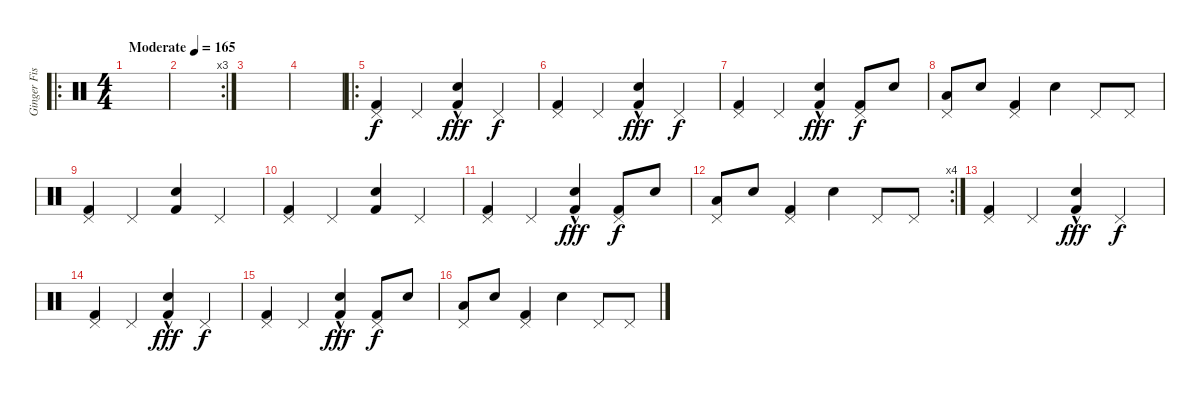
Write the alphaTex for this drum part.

\track ("Ginger Fish" "Ginger Fis") {instrument percussion}
\staff {score}
\articulation defaults
\ro
\ts (4 4)
\tempo (165 "Moderate")
\clef neutral
\ks c
|
\rc 3
|
|
|
\ro
("Pedal Hi-Hat (hit)" "Kick (hit) 2").4 "Pedal Hi-Hat (hit)".4 ("Electric Snare (hit)"{hac} "Kick (hit) 2").4{dy fff} "Pedal Hi-Hat (hit)".4{dy f} |
("Pedal Hi-Hat (hit)" "Kick (hit) 2").4 "Pedal Hi-Hat (hit)".4 ("Electric Snare (hit)"{hac} "Kick (hit) 2").4{dy fff} "Pedal Hi-Hat (hit)".4{dy f} |
("Pedal Hi-Hat (hit)" "Kick (hit) 2").4 "Pedal Hi-Hat (hit)".4 ("Electric Snare (hit)"{hac} "Kick (hit) 2").4{dy fff} ("Pedal Hi-Hat (hit)" "Kick (hit) 2").8{dy f} "Electric Snare (hit)".8 |
("Pedal Hi-Hat (hit)" "Low Tom (hit)").8 "Electric Snare (hit)".8 ("Pedal Hi-Hat (hit)" "Kick (hit) 2").4 "Electric Snare (hit)".4 "Pedal Hi-Hat (hit)".8 "Pedal Hi-Hat (hit)".8 |
("Pedal Hi-Hat (hit)" "Kick (hit) 2").4 "Pedal Hi-Hat (hit)".4 ("Electric Snare (hit)" "Kick (hit) 2").4 "Pedal Hi-Hat (hit)".4 |
("Pedal Hi-Hat (hit)" "Kick (hit) 2").4 "Pedal Hi-Hat (hit)".4 ("Electric Snare (hit)" "Kick (hit) 2").4 "Pedal Hi-Hat (hit)".4 |
("Pedal Hi-Hat (hit)" "Kick (hit) 2").4 "Pedal Hi-Hat (hit)".4 ("Electric Snare (hit)"{hac} "Kick (hit) 2").4{dy fff} ("Pedal Hi-Hat (hit)" "Kick (hit) 2").8{dy f} "Electric Snare (hit)".8 |
\rc 4
("Pedal Hi-Hat (hit)" "Low Tom (hit)").8 "Electric Snare (hit)".8 ("Pedal Hi-Hat (hit)" "Kick (hit) 2").4 "Electric Snare (hit)".4 "Pedal Hi-Hat (hit)".8 "Pedal Hi-Hat (hit)".8 |
("Pedal Hi-Hat (hit)" "Kick (hit) 2").4 "Pedal Hi-Hat (hit)".4 ("Electric Snare (hit)"{hac} "Kick (hit) 2").4{dy fff} "Pedal Hi-Hat (hit)".4{dy f} |
("Pedal Hi-Hat (hit)" "Kick (hit) 2").4 "Pedal Hi-Hat (hit)".4 ("Electric Snare (hit)"{hac} "Kick (hit) 2").4{dy fff} "Pedal Hi-Hat (hit)".4{dy f} |
("Pedal Hi-Hat (hit)" "Kick (hit) 2").4 "Pedal Hi-Hat (hit)".4 ("Electric Snare (hit)"{hac} "Kick (hit) 2").4{dy fff} ("Pedal Hi-Hat (hit)" "Kick (hit) 2").8{dy f} "Electric Snare (hit)".8 |
("Pedal Hi-Hat (hit)" "Low Tom (hit)").8 "Electric Snare (hit)".8 ("Pedal Hi-Hat (hit)" "Kick (hit) 2").4 "Electric Snare (hit)".4 "Pedal Hi-Hat (hit)".8 "Pedal Hi-Hat (hit)".8
